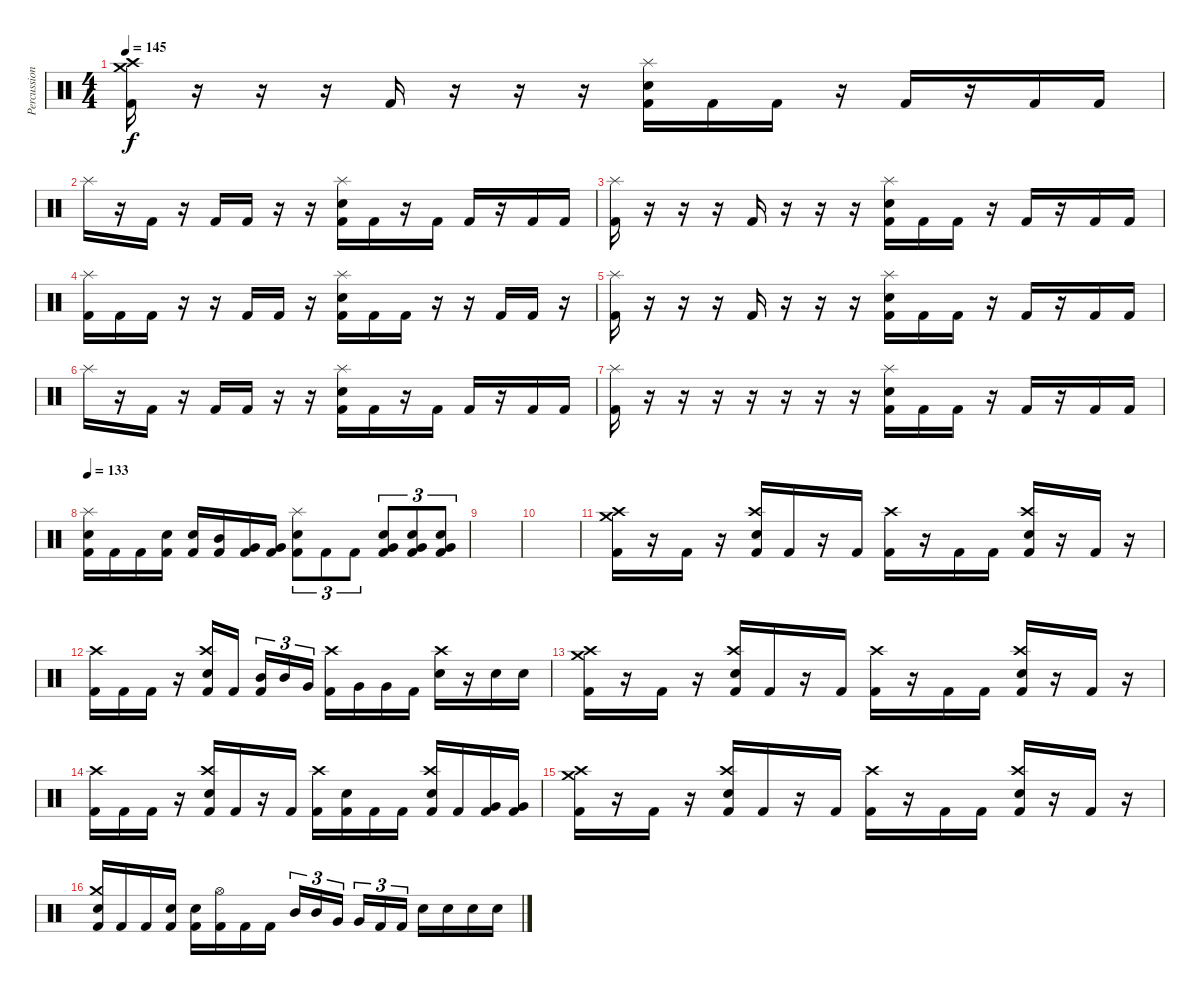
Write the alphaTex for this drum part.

\track ("Percussion" "Percussion") {instrument percussion}
\staff {score}
\articulation defaults
\ts (4 4)
\tempo 145
\clef neutral
\ks c
("Kick (hit) 2" "Crash medium (hit)" "Crash high (hit)").16{dy f} r.16 r.16 r.16 "Kick (hit) 2".16 r.16 r.16 r.16 ("Kick (hit) 2" "Electric Snare (hit)" "Splash (hit)").16 "Kick (hit) 2".16 "Kick (hit) 2".16 r.16 "Kick (hit) 2".16 r.16 "Kick (hit) 2".16 "Kick (hit) 2".16 |
"Splash (hit)".16 r.16 "Kick (hit) 2".16 r.16 "Kick (hit) 2".16 "Kick (hit) 2".16 r.16 r.16 ("Kick (hit) 2" "Electric Snare (hit)" "Splash (hit)").16 "Kick (hit) 2".16 r.16 "Kick (hit) 2".16 "Kick (hit) 2".16 r.16 "Kick (hit) 2".16 "Kick (hit) 2".16 |
("Kick (hit) 2" "Splash (hit)").16 r.16 r.16 r.16 "Kick (hit) 2".16 r.16 r.16 r.16 ("Kick (hit) 2" "Electric Snare (hit)" "Splash (hit)").16 "Kick (hit) 2".16 "Kick (hit) 2".16 r.16 "Kick (hit) 2".16 r.16 "Kick (hit) 2".16 "Kick (hit) 2".16 |
("Kick (hit) 2" "Splash (hit)").16 "Kick (hit) 2".16 "Kick (hit) 2".16 r.16 r.16 "Kick (hit) 2".16 "Kick (hit) 2".16 r.16 ("Kick (hit) 2" "Electric Snare (hit)" "Splash (hit)").16 "Kick (hit) 2".16 "Kick (hit) 2".16 r.16 r.16 "Kick (hit) 2".16 "Kick (hit) 2".16 r.16 |
("Kick (hit) 2" "Splash (hit)").16 r.16 r.16 r.16 "Kick (hit) 2".16 r.16 r.16 r.16 ("Kick (hit) 2" "Electric Snare (hit)" "Splash (hit)").16 "Kick (hit) 2".16 "Kick (hit) 2".16 r.16 "Kick (hit) 2".16 r.16 "Kick (hit) 2".16 "Kick (hit) 2".16 |
"Splash (hit)".16 r.16 "Kick (hit) 2".16 r.16 "Kick (hit) 2".16 "Kick (hit) 2".16 r.16 r.16 ("Kick (hit) 2" "Electric Snare (hit)" "Splash (hit)").16 "Kick (hit) 2".16 r.16 "Kick (hit) 2".16 "Kick (hit) 2".16 r.16 "Kick (hit) 2".16 "Kick (hit) 2".16 |
("Kick (hit) 2" "Splash (hit)").16 r.16 r.16 r.16 r.16 r.16 r.16 r.16 ("Kick (hit) 2" "Electric Snare (hit)" "Splash (hit)").16 "Kick (hit) 2".16 "Kick (hit) 2".16 r.16 "Kick (hit) 2".16 r.16 "Kick (hit) 2".16 "Kick (hit) 2".16 |
\tempo 133
("Kick (hit) 2" "Electric Snare (hit)" "Splash (hit)").16 "Kick (hit) 2".16 "Kick (hit) 2".16 ("Kick (hit) 2" "Electric Snare (hit)").16 ("Kick (hit) 2" "Electric Snare (hit)").16 ("Kick (hit) 2" "Mid Tom (hit)").16 ("Kick (hit) 2" "Very Low Tom (hit)").16 ("Kick (hit) 2" "Very Low Tom (hit)").16 ("Kick (hit) 2" "Electric Snare (hit)" "Splash (hit)").8{tu (3 2)} "Kick (hit) 2".8{tu (3 2)} "Kick (hit) 2".8{tu (3 2)} ("Kick (hit) 2" "Electric Snare (hit)" "Very Low Tom (hit)").8{tu (3 2)} ("Kick (hit) 2" "Electric Snare (hit)" "Very Low Tom (hit)").8{tu (3 2)} ("Kick (hit) 2" "Electric Snare (hit)" "Very Low Tom (hit)").8{tu (3 2)} |
|
|
("Kick (hit) 2" "Crash medium (hit)" "Crash high (hit)").16 r.16 "Kick (hit) 2".16 r.16 ("Kick (hit) 2" "Electric Snare (hit)" "Crash high (hit)").16 "Kick (hit) 2".16 r.16 "Kick (hit) 2".16 ("Kick (hit) 2" "Crash high (hit)").16 r.16 "Kick (hit) 2".16 "Kick (hit) 2".16 ("Kick (hit) 2" "Electric Snare (hit)" "Crash high (hit)").16 r.16 "Kick (hit) 2".16 r.16 |
("Kick (hit) 2" "Crash high (hit)").16 "Kick (hit) 2".16 "Kick (hit) 2".16 r.16 ("Kick (hit) 2" "Electric Snare (hit)" "Crash high (hit)").16 "Kick (hit) 2".16{beam splitsecondary} ("Kick (hit) 2" "Mid Tom (hit)").16{tu (3 2)} "Mid Tom (hit)".16{tu (3 2)} "Very Low Tom (hit)".16{tu (3 2)} ("Kick (hit) 2" "Crash high (hit)").16 "Very Low Tom (hit)".16 "Very Low Tom (hit)".16 "Kick (hit) 2".16 ("Electric Snare (hit)" "Crash high (hit)").16 r.16 "Electric Snare (hit)".16 "Electric Snare (hit)".16 |
("Kick (hit) 2" "Crash medium (hit)" "Crash high (hit)").16 r.16 "Kick (hit) 2".16 r.16 ("Kick (hit) 2" "Electric Snare (hit)" "Crash high (hit)").16 "Kick (hit) 2".16 r.16 "Kick (hit) 2".16 ("Kick (hit) 2" "Crash high (hit)").16 r.16 "Kick (hit) 2".16 "Kick (hit) 2".16 ("Kick (hit) 2" "Electric Snare (hit)" "Crash high (hit)").16 r.16 "Kick (hit) 2".16 r.16 |
("Kick (hit) 2" "Crash high (hit)").16 "Kick (hit) 2".16 "Kick (hit) 2".16 r.16 ("Kick (hit) 2" "Electric Snare (hit)" "Crash high (hit)").16 "Kick (hit) 2".16 r.16 "Kick (hit) 2".16 ("Kick (hit) 2" "Crash high (hit)").16 ("Kick (hit) 2" "Electric Snare (hit)").16 "Kick (hit) 2".16 "Kick (hit) 2".16 ("Kick (hit) 2" "Electric Snare (hit)" "Crash high (hit)").16 "Kick (hit) 2".16 ("Kick (hit) 2" "Very Low Tom (hit)").16 ("Kick (hit) 2" "Very Low Tom (hit)").16 |
("Kick (hit) 2" "Crash medium (hit)" "Crash high (hit)").16 r.16 "Kick (hit) 2".16 r.16 ("Kick (hit) 2" "Electric Snare (hit)" "Crash high (hit)").16 "Kick (hit) 2".16 r.16 "Kick (hit) 2".16 ("Kick (hit) 2" "Crash high (hit)").16 r.16 "Kick (hit) 2".16 "Kick (hit) 2".16 ("Kick (hit) 2" "Electric Snare (hit)" "Crash high (hit)").16 r.16 "Kick (hit) 2".16 r.16 |
("Kick (hit) 2" "Electric Snare (hit)" "Crash medium (hit)").16 "Kick (hit) 2".16 "Kick (hit) 2".16 ("Kick (hit) 2" "Electric Snare (hit)").16 ("Kick (hit) 2" "Electric Snare (hit)").16 ("Kick (hit) 2" "Hi-Hat (open)").16 "Kick (hit) 2".16 "Kick (hit) 2".16 "Mid Tom (hit)".16{tu (3 2)} "Mid Tom (hit)".16{tu (3 2)} "Very Low Tom (hit)".16{tu (3 2) beam splitsecondary} "Very Low Tom (hit)".16{tu (3 2)} "Kick (hit) 2".16{tu (3 2)} "Kick (hit) 2".16{tu (3 2)} "Electric Snare (hit)".16 "Electric Snare (hit)".16 "Electric Snare (hit)".16 "Electric Snare (hit)".16
